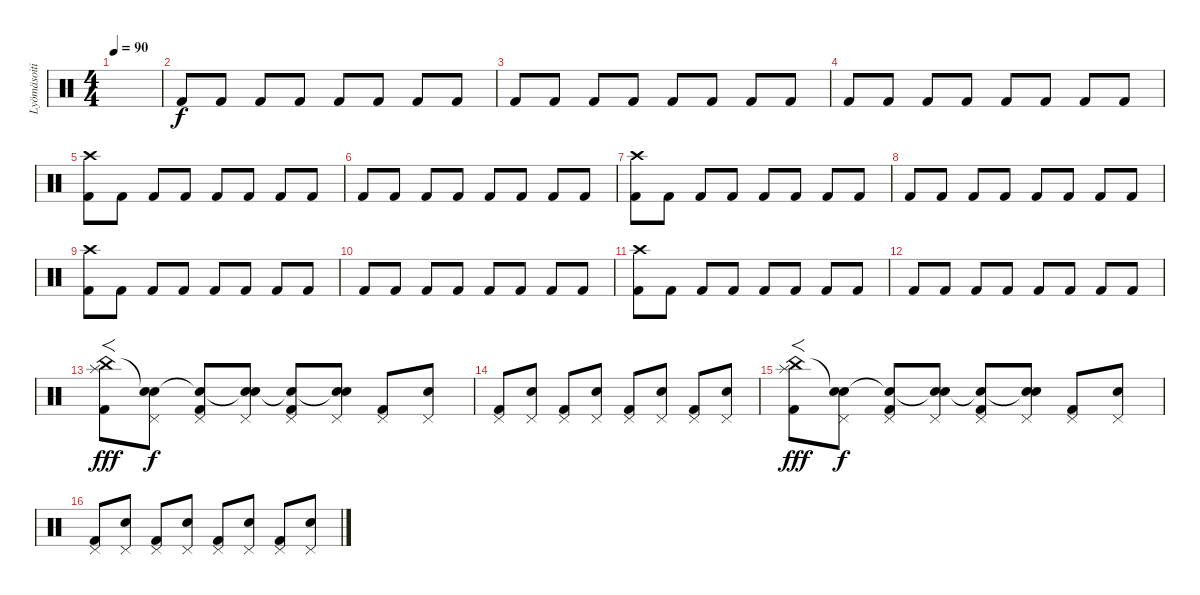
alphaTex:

\track ("Lyömäsoitin" "Lyömäsoiti") {instrument percussion}
\staff {score}
\articulation defaults
\ts (4 4)
\tempo 90
\clef neutral
\ks c
|
"Kick (hit) 2".8 "Kick (hit) 2".8 "Kick (hit) 2".8 "Kick (hit) 2".8 "Kick (hit) 2".8 "Kick (hit) 2".8 "Kick (hit) 2".8 "Kick (hit) 2".8 |
"Kick (hit) 2".8 "Kick (hit) 2".8 "Kick (hit) 2".8 "Kick (hit) 2".8 "Kick (hit) 2".8 "Kick (hit) 2".8 "Kick (hit) 2".8 "Kick (hit) 2".8 |
"Kick (hit) 2".8 "Kick (hit) 2".8 "Kick (hit) 2".8 "Kick (hit) 2".8 "Kick (hit) 2".8 "Kick (hit) 2".8 "Kick (hit) 2".8 "Kick (hit) 2".8 |
("Crash high (hit)" "Kick (hit) 2").8 "Kick (hit) 2".8 "Kick (hit) 2".8 "Kick (hit) 2".8 "Kick (hit) 2".8 "Kick (hit) 2".8 "Kick (hit) 2".8 "Kick (hit) 2".8 |
"Kick (hit) 2".8 "Kick (hit) 2".8 "Kick (hit) 2".8 "Kick (hit) 2".8 "Kick (hit) 2".8 "Kick (hit) 2".8 "Kick (hit) 2".8 "Kick (hit) 2".8 |
("Crash high (hit)" "Kick (hit) 2").8 "Kick (hit) 2".8 "Kick (hit) 2".8 "Kick (hit) 2".8 "Kick (hit) 2".8 "Kick (hit) 2".8 "Kick (hit) 2".8 "Kick (hit) 2".8 |
"Kick (hit) 2".8 "Kick (hit) 2".8 "Kick (hit) 2".8 "Kick (hit) 2".8 "Kick (hit) 2".8 "Kick (hit) 2".8 "Kick (hit) 2".8 "Kick (hit) 2".8 |
("Crash high (hit)" "Kick (hit) 2").8 "Kick (hit) 2".8 "Kick (hit) 2".8 "Kick (hit) 2".8 "Kick (hit) 2".8 "Kick (hit) 2".8 "Kick (hit) 2".8 "Kick (hit) 2".8 |
"Kick (hit) 2".8 "Kick (hit) 2".8 "Kick (hit) 2".8 "Kick (hit) 2".8 "Kick (hit) 2".8 "Kick (hit) 2".8 "Kick (hit) 2".8 "Kick (hit) 2".8 |
("Crash high (hit)" "Kick (hit) 2").8 "Kick (hit) 2".8 "Kick (hit) 2".8 "Kick (hit) 2".8 "Kick (hit) 2".8 "Kick (hit) 2".8 "Kick (hit) 2".8 "Kick (hit) 2".8 |
"Kick (hit) 2".8 "Kick (hit) 2".8 "Kick (hit) 2".8 "Kick (hit) 2".8 "Kick (hit) 2".8 "Kick (hit) 2".8 "Kick (hit) 2".8 "Kick (hit) 2".8 |
("China (hit)" "Splash (hit)" "Kick (hit) 2").8{f dy fff} ("Snare (hit)"{t} "Pedal Hi-Hat (hit)" "Snare (hit) 2").8{dy f} ("Snare (hit)"{t} "Pedal Hi-Hat (hit)" "Kick (hit) 2").8 ("Snare (hit)"{t} "Pedal Hi-Hat (hit)" "Snare (hit) 2").8 ("Snare (hit)"{t} "Pedal Hi-Hat (hit)" "Kick (hit) 2").8 ("Snare (hit)"{t} "Pedal Hi-Hat (hit)" "Snare (hit) 2").8 ("Pedal Hi-Hat (hit)" "Kick (hit) 2").8 ("Pedal Hi-Hat (hit)" "Snare (hit) 2").8 |
("Pedal Hi-Hat (hit)" "Kick (hit) 2").8 ("Pedal Hi-Hat (hit)" "Snare (hit) 2").8 ("Pedal Hi-Hat (hit)" "Kick (hit) 2").8 ("Pedal Hi-Hat (hit)" "Snare (hit) 2").8 ("Pedal Hi-Hat (hit)" "Kick (hit) 2").8 ("Pedal Hi-Hat (hit)" "Snare (hit) 2").8 ("Pedal Hi-Hat (hit)" "Kick (hit) 2").8 ("Pedal Hi-Hat (hit)" "Snare (hit) 2").8 |
("China (hit)" "Splash (hit)" "Kick (hit) 2").8{f dy fff} ("Snare (hit)"{t} "Pedal Hi-Hat (hit)" "Snare (hit) 2").8{dy f} ("Snare (hit)"{t} "Pedal Hi-Hat (hit)" "Kick (hit) 2").8 ("Snare (hit)"{t} "Pedal Hi-Hat (hit)" "Snare (hit) 2").8 ("Snare (hit)"{t} "Pedal Hi-Hat (hit)" "Kick (hit) 2").8 ("Snare (hit)"{t} "Pedal Hi-Hat (hit)" "Snare (hit) 2").8 ("Pedal Hi-Hat (hit)" "Kick (hit) 2").8 ("Pedal Hi-Hat (hit)" "Snare (hit) 2").8 |
("Pedal Hi-Hat (hit)" "Kick (hit) 2").8 ("Pedal Hi-Hat (hit)" "Snare (hit) 2").8 ("Pedal Hi-Hat (hit)" "Kick (hit) 2").8 ("Pedal Hi-Hat (hit)" "Snare (hit) 2").8 ("Pedal Hi-Hat (hit)" "Kick (hit) 2").8 ("Pedal Hi-Hat (hit)" "Snare (hit) 2").8 ("Pedal Hi-Hat (hit)" "Kick (hit) 2").8 ("Pedal Hi-Hat (hit)" "Snare (hit) 2").8
